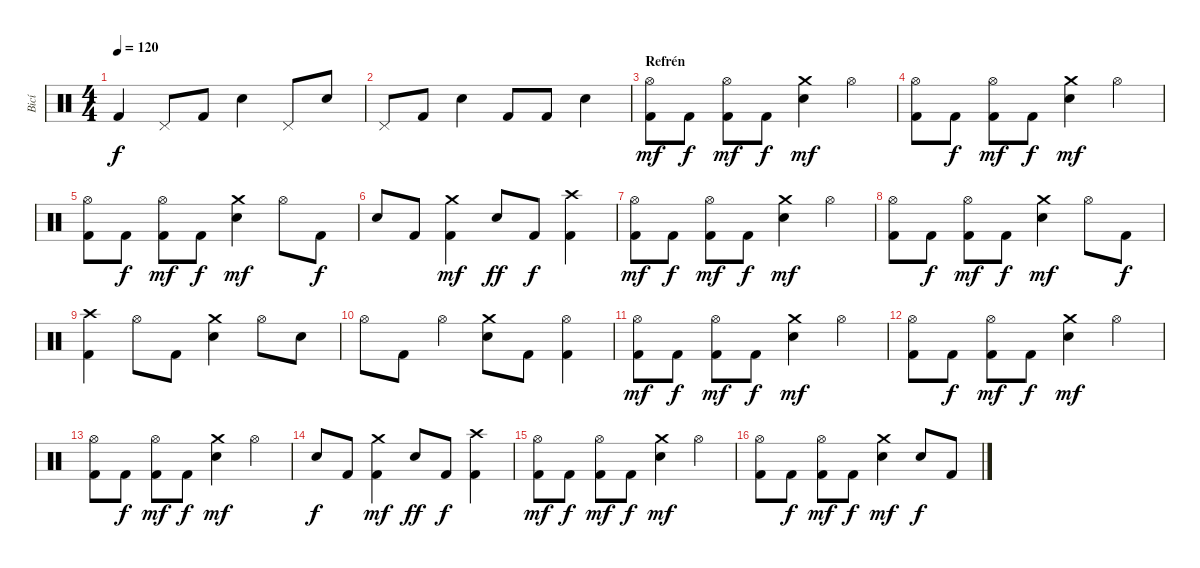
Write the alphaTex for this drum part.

\track ("Bicí" "Bicí") {instrument percussion}
\staff {score}
\articulation defaults
\ts (4 4)
\tempo 120
\clef neutral
\ks c "Kick (hit) 2".4{dy f} "Pedal Hi-Hat (hit)".8 "Kick (hit) 2".8 "Snare (hit) 2".4 "Pedal Hi-Hat (hit)".8 "Snare (hit) 2".8
|
"Pedal Hi-Hat (hit)".8 "Kick (hit) 2".8 "Snare (hit) 2".4 "Kick (hit) 2".8 "Kick (hit) 2".8 "Snare (hit) 2".4 |
\section ("" "Refrén")
("Hi-Hat (open)" "Kick (hit) 2").8{dy mf} "Kick (hit) 2".8{dy f} ("Hi-Hat (open)" "Kick (hit) 2").8{dy mf} "Kick (hit) 2".8{dy f} ("Crash medium (hit)" "Snare (hit) 2").4{dy mf} "Hi-Hat (open)".4 |
("Hi-Hat (open)" "Kick (hit) 2").8 "Kick (hit) 2".8{dy f} ("Hi-Hat (open)" "Kick (hit) 2").8{dy mf} "Kick (hit) 2".8{dy f} ("Crash medium (hit)" "Snare (hit) 2").4{dy mf} "Hi-Hat (open)".4 |
("Hi-Hat (open)" "Kick (hit) 2").8 "Kick (hit) 2".8{dy f} ("Hi-Hat (open)" "Kick (hit) 2").8{dy mf} "Kick (hit) 2".8{dy f} ("Crash medium (hit)" "Snare (hit) 2").4{dy mf} "Hi-Hat (open)".8 "Kick (hit) 2".8{dy f} |
"Snare (hit) 2".8 "Kick (hit) 2".8 ("Crash medium (hit)" "Kick (hit) 2").4{dy mf} "Snare (hit) 2".8{dy ff} "Kick (hit) 2".8{dy f} ("Crash high (hit)" "Kick (hit) 2").4 |
("Hi-Hat (open)" "Kick (hit) 2").8{dy mf} "Kick (hit) 2".8{dy f} ("Hi-Hat (open)" "Kick (hit) 2").8{dy mf} "Kick (hit) 2".8{dy f} ("Crash medium (hit)" "Snare (hit) 2").4{dy mf} "Hi-Hat (open)".4 |
("Hi-Hat (open)" "Kick (hit) 2").8 "Kick (hit) 2".8{dy f} ("Hi-Hat (open)" "Kick (hit) 2").8{dy mf} "Kick (hit) 2".8{dy f} ("Crash medium (hit)" "Snare (hit) 2").4{dy mf} "Hi-Hat (open)".8 "Kick (hit) 2".8{dy f} |
("Crash high (hit)" "Kick (hit) 2").4 "Hi-Hat (open)".8 "Kick (hit) 2".8 ("Crash medium (hit)" "Snare (hit) 2").4 "Hi-Hat (open)".8 "Snare (hit) 2".8 |
"Hi-Hat (open)".8 "Kick (hit) 2".8 "Hi-Hat (open)".4 ("Crash medium (hit)" "Snare (hit) 2").8 "Kick (hit) 2".8 ("Hi-Hat (open)" "Kick (hit) 2").4 |
("Hi-Hat (open)" "Kick (hit) 2").8{dy mf} "Kick (hit) 2".8{dy f} ("Hi-Hat (open)" "Kick (hit) 2").8{dy mf} "Kick (hit) 2".8{dy f} ("Crash medium (hit)" "Snare (hit) 2").4{dy mf} "Hi-Hat (open)".4 |
("Hi-Hat (open)" "Kick (hit) 2").8 "Kick (hit) 2".8{dy f} ("Hi-Hat (open)" "Kick (hit) 2").8{dy mf} "Kick (hit) 2".8{dy f} ("Crash medium (hit)" "Snare (hit) 2").4{dy mf} "Hi-Hat (open)".4 |
("Hi-Hat (open)" "Kick (hit) 2").8 "Kick (hit) 2".8{dy f} ("Hi-Hat (open)" "Kick (hit) 2").8{dy mf} "Kick (hit) 2".8{dy f} ("Crash medium (hit)" "Snare (hit) 2").4{dy mf} "Hi-Hat (open)".4 |
"Snare (hit) 2".8{dy f} "Kick (hit) 2".8 ("Crash medium (hit)" "Kick (hit) 2").4{dy mf} "Snare (hit) 2".8{dy ff} "Kick (hit) 2".8{dy f} ("Crash high (hit)" "Kick (hit) 2").4 |
("Hi-Hat (open)" "Kick (hit) 2").8{dy mf} "Kick (hit) 2".8{dy f} ("Hi-Hat (open)" "Kick (hit) 2").8{dy mf} "Kick (hit) 2".8{dy f} ("Crash medium (hit)" "Snare (hit) 2").4{dy mf} "Hi-Hat (open)".4 |
("Hi-Hat (open)" "Kick (hit) 2").8 "Kick (hit) 2".8{dy f} ("Hi-Hat (open)" "Kick (hit) 2").8{dy mf} "Kick (hit) 2".8{dy f} ("Crash medium (hit)" "Snare (hit) 2").4{dy mf} "Snare (hit) 2".8{dy f} "Kick (hit) 2".8
